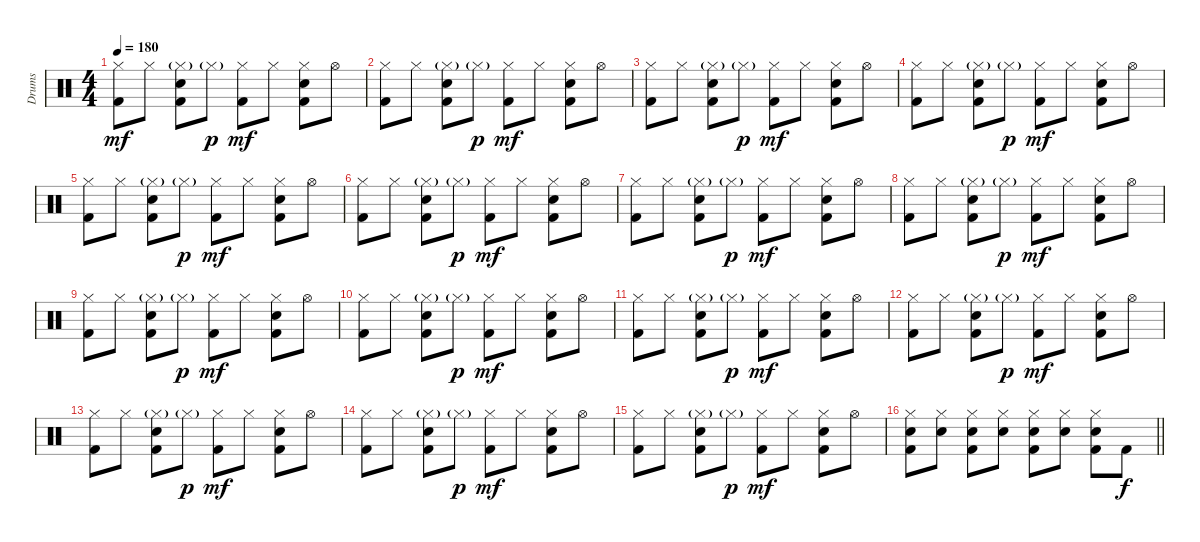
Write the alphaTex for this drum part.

\track ("Drums" "Drums") {instrument percussion}
\staff {score}
\articulation defaults
\ts (4 4)
\tempo 180
\clef neutral
\ks c
("Hi-Hat (closed)" "Kick (hit) 2").8{dy mf} "Hi-Hat (closed)".8 ("Hi-Hat (closed)"{g} "Electric Snare (hit)" "Kick (hit) 2").8 "Hi-Hat (closed)"{g}.8{dy p} ("Hi-Hat (closed)" "Kick (hit) 2").8{dy mf} "Hi-Hat (closed)".8 ("Hi-Hat (closed)" "Electric Snare (hit)" "Kick (hit) 2").8 "Hi-Hat (open)".8 |
("Hi-Hat (closed)" "Kick (hit) 2").8 "Hi-Hat (closed)".8 ("Hi-Hat (closed)"{g} "Electric Snare (hit)" "Kick (hit) 2").8 "Hi-Hat (closed)"{g}.8{dy p} ("Hi-Hat (closed)" "Kick (hit) 2").8{dy mf} "Hi-Hat (closed)".8 ("Hi-Hat (closed)" "Electric Snare (hit)" "Kick (hit) 2").8 "Hi-Hat (open)".8 |
("Hi-Hat (closed)" "Kick (hit) 2").8 "Hi-Hat (closed)".8 ("Hi-Hat (closed)"{g} "Electric Snare (hit)" "Kick (hit) 2").8 "Hi-Hat (closed)"{g}.8{dy p} ("Hi-Hat (closed)" "Kick (hit) 2").8{dy mf} "Hi-Hat (closed)".8 ("Hi-Hat (closed)" "Electric Snare (hit)" "Kick (hit) 2").8 "Hi-Hat (open)".8 |
("Hi-Hat (closed)" "Kick (hit) 2").8 "Hi-Hat (closed)".8 ("Hi-Hat (closed)"{g} "Electric Snare (hit)" "Kick (hit) 2").8 "Hi-Hat (closed)"{g}.8{dy p} ("Hi-Hat (closed)" "Kick (hit) 2").8{dy mf} "Hi-Hat (closed)".8 ("Hi-Hat (closed)" "Electric Snare (hit)" "Kick (hit) 2").8 "Hi-Hat (open)".8 |
("Hi-Hat (closed)" "Kick (hit) 2").8 "Hi-Hat (closed)".8 ("Hi-Hat (closed)"{g} "Electric Snare (hit)" "Kick (hit) 2").8 "Hi-Hat (closed)"{g}.8{dy p} ("Hi-Hat (closed)" "Kick (hit) 2").8{dy mf} "Hi-Hat (closed)".8 ("Hi-Hat (closed)" "Electric Snare (hit)" "Kick (hit) 2").8 "Hi-Hat (open)".8 |
("Hi-Hat (closed)" "Kick (hit) 2").8 "Hi-Hat (closed)".8 ("Hi-Hat (closed)"{g} "Electric Snare (hit)" "Kick (hit) 2").8 "Hi-Hat (closed)"{g}.8{dy p} ("Hi-Hat (closed)" "Kick (hit) 2").8{dy mf} "Hi-Hat (closed)".8 ("Hi-Hat (closed)" "Electric Snare (hit)" "Kick (hit) 2").8 "Hi-Hat (open)".8 |
("Hi-Hat (closed)" "Kick (hit) 2").8 "Hi-Hat (closed)".8 ("Hi-Hat (closed)"{g} "Electric Snare (hit)" "Kick (hit) 2").8 "Hi-Hat (closed)"{g}.8{dy p} ("Hi-Hat (closed)" "Kick (hit) 2").8{dy mf} "Hi-Hat (closed)".8 ("Hi-Hat (closed)" "Electric Snare (hit)" "Kick (hit) 2").8 "Hi-Hat (open)".8 |
("Hi-Hat (closed)" "Kick (hit) 2").8 "Hi-Hat (closed)".8 ("Hi-Hat (closed)"{g} "Electric Snare (hit)" "Kick (hit) 2").8 "Hi-Hat (closed)"{g}.8{dy p} ("Hi-Hat (closed)" "Kick (hit) 2").8{dy mf} "Hi-Hat (closed)".8 ("Hi-Hat (closed)" "Electric Snare (hit)" "Kick (hit) 2").8 "Hi-Hat (open)".8 |
("Hi-Hat (closed)" "Kick (hit) 2").8 "Hi-Hat (closed)".8 ("Hi-Hat (closed)"{g} "Electric Snare (hit)" "Kick (hit) 2").8 "Hi-Hat (closed)"{g}.8{dy p} ("Hi-Hat (closed)" "Kick (hit) 2").8{dy mf} "Hi-Hat (closed)".8 ("Hi-Hat (closed)" "Electric Snare (hit)" "Kick (hit) 2").8 "Hi-Hat (open)".8 |
("Hi-Hat (closed)" "Kick (hit) 2").8 "Hi-Hat (closed)".8 ("Hi-Hat (closed)"{g} "Electric Snare (hit)" "Kick (hit) 2").8 "Hi-Hat (closed)"{g}.8{dy p} ("Hi-Hat (closed)" "Kick (hit) 2").8{dy mf} "Hi-Hat (closed)".8 ("Hi-Hat (closed)" "Electric Snare (hit)" "Kick (hit) 2").8 "Hi-Hat (open)".8 |
("Hi-Hat (closed)" "Kick (hit) 2").8 "Hi-Hat (closed)".8 ("Hi-Hat (closed)"{g} "Electric Snare (hit)" "Kick (hit) 2").8 "Hi-Hat (closed)"{g}.8{dy p} ("Hi-Hat (closed)" "Kick (hit) 2").8{dy mf} "Hi-Hat (closed)".8 ("Hi-Hat (closed)" "Electric Snare (hit)" "Kick (hit) 2").8 "Hi-Hat (open)".8 |
("Hi-Hat (closed)" "Kick (hit) 2").8 "Hi-Hat (closed)".8 ("Hi-Hat (closed)"{g} "Electric Snare (hit)" "Kick (hit) 2").8 "Hi-Hat (closed)"{g}.8{dy p} ("Hi-Hat (closed)" "Kick (hit) 2").8{dy mf} "Hi-Hat (closed)".8 ("Hi-Hat (closed)" "Electric Snare (hit)" "Kick (hit) 2").8 "Hi-Hat (open)".8 |
("Hi-Hat (closed)" "Kick (hit) 2").8 "Hi-Hat (closed)".8 ("Hi-Hat (closed)"{g} "Electric Snare (hit)" "Kick (hit) 2").8 "Hi-Hat (closed)"{g}.8{dy p} ("Hi-Hat (closed)" "Kick (hit) 2").8{dy mf} "Hi-Hat (closed)".8 ("Hi-Hat (closed)" "Electric Snare (hit)" "Kick (hit) 2").8 "Hi-Hat (open)".8 |
("Hi-Hat (closed)" "Kick (hit) 2").8 "Hi-Hat (closed)".8 ("Hi-Hat (closed)"{g} "Electric Snare (hit)" "Kick (hit) 2").8 "Hi-Hat (closed)"{g}.8{dy p} ("Hi-Hat (closed)" "Kick (hit) 2").8{dy mf} "Hi-Hat (closed)".8 ("Hi-Hat (closed)" "Electric Snare (hit)" "Kick (hit) 2").8 "Hi-Hat (open)".8 |
("Hi-Hat (closed)" "Kick (hit) 2").8 "Hi-Hat (closed)".8 ("Hi-Hat (closed)"{g} "Electric Snare (hit)" "Kick (hit) 2").8 "Hi-Hat (closed)"{g}.8{dy p} ("Hi-Hat (closed)" "Kick (hit) 2").8{dy mf} "Hi-Hat (closed)".8 ("Hi-Hat (closed)" "Electric Snare (hit)" "Kick (hit) 2").8 "Hi-Hat (open)".8 |
\barLineRight lightlight
("Hi-Hat (closed)" "Electric Snare (hit)" "Kick (hit) 2").8 ("Hi-Hat (closed)" "Electric Snare (hit)").8 ("Hi-Hat (closed)" "Electric Snare (hit)" "Kick (hit) 2").8 ("Hi-Hat (closed)" "Electric Snare (hit)").8 ("Hi-Hat (closed)" "Electric Snare (hit)" "Kick (hit) 2").8 ("Hi-Hat (closed)" "Electric Snare (hit)").8 ("Hi-Hat (closed)" "Electric Snare (hit)" "Kick (hit) 2").8 "Kick (hit) 2".8{dy f}
